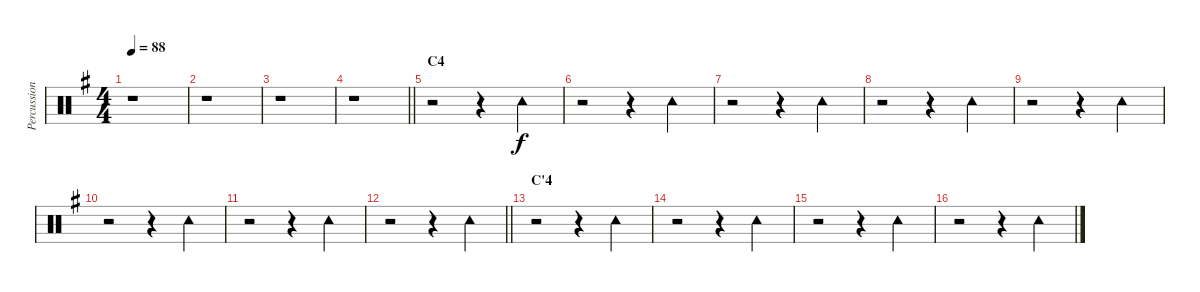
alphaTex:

\track ("Percussion" "Percussion") {instrument percussion}
\staff {score}
\articulation defaults
\ts (4 4)
\tempo 88
\clef neutral
\ks g
r.1{dy f} |
r.1 |
r.1 |
\barLineRight lightlight
r.1 |
\section ("" "C4")
r.2 r.4 "Tambourine (hit)".4 |
r.2 r.4 "Tambourine (hit)".4 |
r.2 r.4 "Tambourine (hit)".4 |
r.2 r.4 "Tambourine (hit)".4 |
r.2 r.4 "Tambourine (hit)".4 |
r.2 r.4 "Tambourine (hit)".4 |
r.2 r.4 "Tambourine (hit)".4 |
\barLineRight lightlight
r.2 r.4 "Tambourine (hit)".4 |
\section ("" "C'4")
r.2 r.4 "Tambourine (hit)".4 |
r.2 r.4 "Tambourine (hit)".4 |
r.2 r.4 "Tambourine (hit)".4 |
r.2 r.4 "Tambourine (hit)".4
